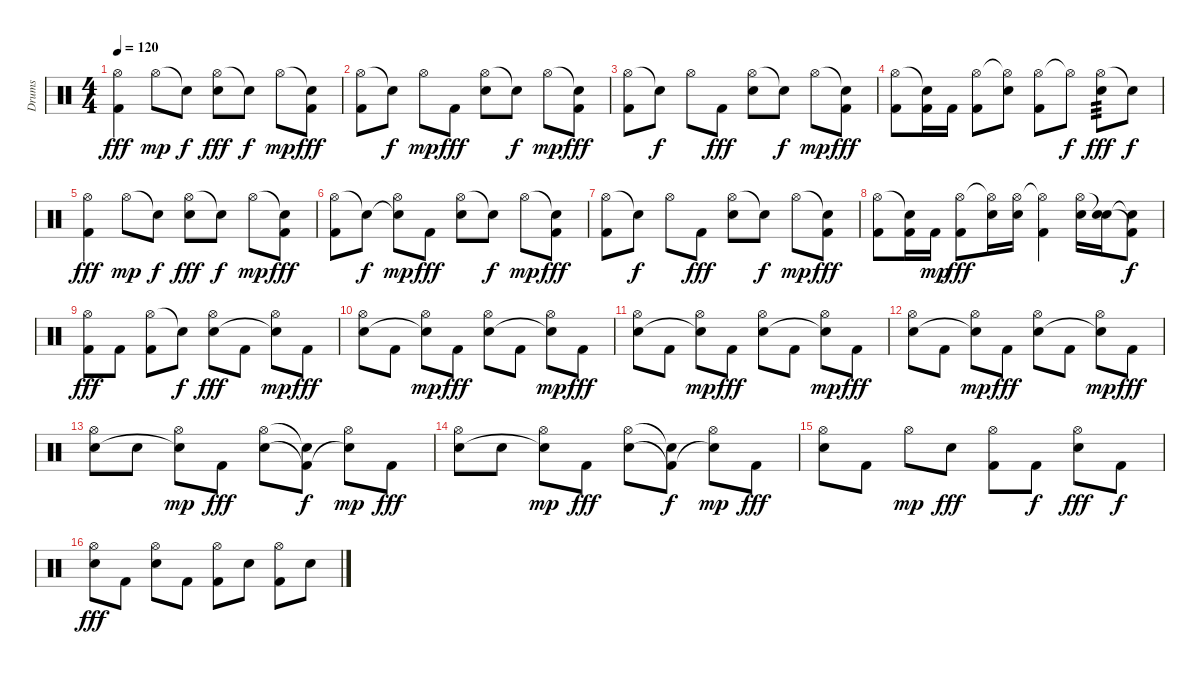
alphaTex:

\track ("Drums" "Drums") {instrument percussion}
\staff {score}
\articulation defaults
\ts (4 4)
\tempo 120
\clef neutral
\ks c
("Hi-Hat (open)" "Kick (hit) 2").4{dy fff} "Hi-Hat (open)".8{dy mp} "Snare (hit)"{t}.8{dy f} ("Hi-Hat (open)" "Electric Snare (hit)").8{dy fff} "Snare (hit)"{t}.8{dy f} "Hi-Hat (open)".8{dy mp} ("Snare (hit)"{t} "Kick (hit) 2").8{dy fff} |
("Hi-Hat (open)" "Kick (hit) 2").8 "Snare (hit)"{t}.8{dy f} "Hi-Hat (open)".8{dy mp} "Kick (hit) 2".8{dy fff} ("Hi-Hat (open)" "Electric Snare (hit)").8 "Snare (hit)"{t}.8{dy f} "Hi-Hat (open)".8{dy mp} ("Snare (hit)"{t} "Kick (hit) 2").8{dy fff} |
("Hi-Hat (open)" "Kick (hit) 2").8 "Snare (hit)"{t}.8{dy f} "Hi-Hat (open)".8 "Kick (hit) 2".8{dy fff} ("Hi-Hat (open)" "Electric Snare (hit)").8 "Snare (hit)"{t}.8{dy f} "Hi-Hat (open)".8{dy mp} ("Snare (hit)"{t} "Kick (hit) 2").8{dy fff} |
("Hi-Hat (open)" "Kick (hit) 2").8 ("Snare (hit)"{t} "Kick (hit) 2").16 "Kick (hit) 2".16 ("Hi-Hat (open)" "Kick (hit) 2").8 ("Hi-Hat (open)"{t} "Electric Snare (hit)").8 ("Hi-Hat (open)" "Kick (hit) 2").8 "Hi-Hat (open)"{t}.8{dy f} ("Hi-Hat (open)" "Electric Snare (hit)").8{tp 3 dy fff} "Snare (hit)"{t}.8{dy f} |
("Hi-Hat (open)" "Kick (hit) 2").4{dy fff} "Hi-Hat (open)".8{dy mp} "Snare (hit)"{t}.8{dy f} ("Hi-Hat (open)" "Electric Snare (hit)").8{dy fff} "Snare (hit)"{t}.8{dy f} "Hi-Hat (open)".8{dy mp} ("Snare (hit)"{t} "Kick (hit) 2").8{dy fff} |
("Hi-Hat (open)" "Kick (hit) 2").8 "Snare (hit)"{t}.8{dy f} ("Snare (hit)"{t} "Hi-Hat (open)").8{dy mp} "Kick (hit) 2".8{dy fff} ("Hi-Hat (open)" "Electric Snare (hit)").8 "Snare (hit)"{t}.8{dy f} "Hi-Hat (open)".8{dy mp} ("Snare (hit)"{t} "Kick (hit) 2").8{dy fff} |
("Hi-Hat (open)" "Kick (hit) 2").8 "Snare (hit)"{t}.8{dy f} "Hi-Hat (open)".8 "Kick (hit) 2".8{dy fff} ("Hi-Hat (open)" "Electric Snare (hit)").8 "Snare (hit)"{t}.8{dy f} "Hi-Hat (open)".8{dy mp} ("Snare (hit)"{t} "Kick (hit) 2").8{dy fff} |
("Hi-Hat (open)" "Kick (hit) 2").8 ("Snare (hit)"{t} "Kick (hit) 2").16 "Kick (hit) 2".16{dy mp} ("Hi-Hat (open)" "Kick (hit) 2").8{dy fff} ("Hi-Hat (open)"{t} "Electric Snare (hit)").16 ("Hi-Hat (open)" "Electric Snare (hit)").16 ("Hi-Hat (open)"{t} "Kick (hit) 2").4 ("Hi-Hat (open)" "Electric Snare (hit)").16 ("Snare (hit)"{t} "Electric Snare (hit)").16 ("Snare (hit)"{t} "Kick (hit) 2"{t}).8{dy f} |
("Hi-Hat (open)" "Kick (hit) 2").8{dy fff} "Kick (hit) 2".8 ("Hi-Hat (open)" "Kick (hit) 2").8 "Snare (hit)"{t}.8{dy f} ("Hi-Hat (open)" "Electric Snare (hit)").8{dy fff} "Kick (hit) 2".8 ("Hi-Hat (open)" "Snare (hit)"{t}).8{dy mp} "Kick (hit) 2".8{dy fff} |
("Hi-Hat (open)" "Electric Snare (hit)").8 "Kick (hit) 2".8 ("Hi-Hat (open)" "Snare (hit)"{t}).8{dy mp} "Kick (hit) 2".8{dy fff} ("Hi-Hat (open)" "Electric Snare (hit)").8 "Kick (hit) 2".8 ("Hi-Hat (open)" "Snare (hit)"{t}).8{dy mp} "Kick (hit) 2".8{dy fff} |
("Hi-Hat (open)" "Electric Snare (hit)").8 "Kick (hit) 2".8 ("Hi-Hat (open)" "Snare (hit)"{t}).8{dy mp} "Kick (hit) 2".8{dy fff} ("Hi-Hat (open)" "Electric Snare (hit)").8 "Kick (hit) 2".8 ("Hi-Hat (open)" "Snare (hit)"{t}).8{dy mp} "Kick (hit) 2".8{dy fff} |
("Hi-Hat (open)" "Electric Snare (hit)").8 "Kick (hit) 2".8 ("Hi-Hat (open)" "Snare (hit)"{t}).8{dy mp} "Kick (hit) 2".8{dy fff} ("Hi-Hat (open)" "Electric Snare (hit)").8 "Kick (hit) 2".8 ("Hi-Hat (open)" "Snare (hit)"{t}).8{dy mp} "Kick (hit) 2".8{dy fff} |
("Hi-Hat (open)" "Electric Snare (hit)").8 "Electric Snare (hit)".8 ("Hi-Hat (open)" "Snare (hit)"{t}).8{dy mp} "Kick (hit) 2".8{dy fff} ("Hi-Hat (open)" "Electric Snare (hit)").8 ("Snare (hit)"{t} "Kick (hit) 2"{t}).8{dy f} ("Hi-Hat (open)" "Snare (hit)"{t}).8{dy mp} "Kick (hit) 2".8{dy fff} |
("Hi-Hat (open)" "Electric Snare (hit)").8 "Electric Snare (hit)".8 ("Hi-Hat (open)" "Snare (hit)"{t}).8{dy mp} "Kick (hit) 2".8{dy fff} ("Hi-Hat (open)" "Electric Snare (hit)").8 ("Snare (hit)"{t} "Kick (hit) 2"{t}).8{dy f} ("Hi-Hat (open)" "Snare (hit)"{t}).8{dy mp} "Kick (hit) 2".8{dy fff} |
("Hi-Hat (open)" "Electric Snare (hit)").8 "Kick (hit) 2".8 "Hi-Hat (open)".8{dy mp} "Electric Snare (hit)".8{dy fff} ("Hi-Hat (open)" "Kick (hit) 2").8 "Kick (hit) 2".8{dy f} ("Hi-Hat (open)" "Electric Snare (hit)").8{dy fff} "Kick (hit) 2".8{dy f} |
("Hi-Hat (open)" "Electric Snare (hit)").8{dy fff} "Kick (hit) 2".8 ("Hi-Hat (open)" "Electric Snare (hit)").8 "Kick (hit) 2".8 ("Hi-Hat (open)" "Kick (hit) 2").8 "Electric Snare (hit)".8 ("Hi-Hat (open)" "Kick (hit) 2").8 "Electric Snare (hit)".8
